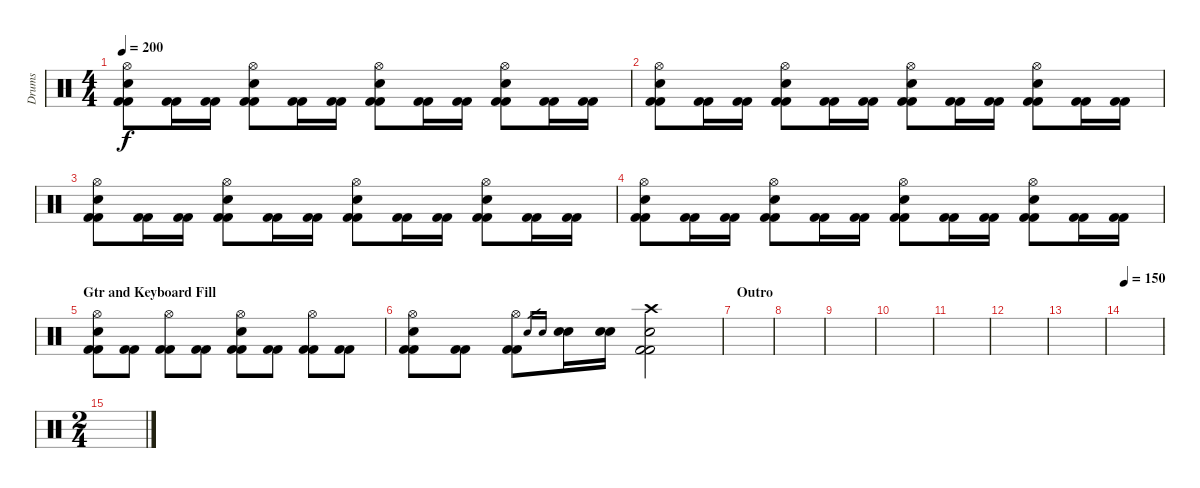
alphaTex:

\track ("Drums" "Drums") {instrument percussion}
\staff {score}
\articulation defaults
\ts (4 4)
\tempo 200
\clef neutral
\ks c
("Hi-Hat (open)" "Snare (hit) 2" "Kick (hit) 2" "Kick (hit) 2").8{dy f} ("Kick (hit) 2" "Kick (hit) 2").16 ("Kick (hit) 2" "Kick (hit) 2").16 ("Hi-Hat (open)" "Snare (hit) 2" "Kick (hit) 2" "Kick (hit) 2").8 ("Kick (hit) 2" "Kick (hit) 2").16 ("Kick (hit) 2" "Kick (hit) 2").16 ("Hi-Hat (open)" "Snare (hit) 2" "Kick (hit) 2" "Kick (hit) 2").8 ("Kick (hit) 2" "Kick (hit) 2").16 ("Kick (hit) 2" "Kick (hit) 2").16 ("Hi-Hat (open)" "Snare (hit) 2" "Kick (hit) 2" "Kick (hit) 2").8 ("Kick (hit) 2" "Kick (hit) 2").16 ("Kick (hit) 2" "Kick (hit) 2").16 |
("Hi-Hat (open)" "Snare (hit) 2" "Kick (hit) 2" "Kick (hit) 2").8 ("Kick (hit) 2" "Kick (hit) 2").16 ("Kick (hit) 2" "Kick (hit) 2").16 ("Hi-Hat (open)" "Snare (hit) 2" "Kick (hit) 2" "Kick (hit) 2").8 ("Kick (hit) 2" "Kick (hit) 2").16 ("Kick (hit) 2" "Kick (hit) 2").16 ("Hi-Hat (open)" "Snare (hit) 2" "Kick (hit) 2" "Kick (hit) 2").8 ("Kick (hit) 2" "Kick (hit) 2").16 ("Kick (hit) 2" "Kick (hit) 2").16 ("Hi-Hat (open)" "Snare (hit) 2" "Kick (hit) 2" "Kick (hit) 2").8 ("Kick (hit) 2" "Kick (hit) 2").16 ("Kick (hit) 2" "Kick (hit) 2").16 |
("Hi-Hat (open)" "Snare (hit) 2" "Kick (hit) 2" "Kick (hit) 2").8 ("Kick (hit) 2" "Kick (hit) 2").16 ("Kick (hit) 2" "Kick (hit) 2").16 ("Hi-Hat (open)" "Snare (hit) 2" "Kick (hit) 2" "Kick (hit) 2").8 ("Kick (hit) 2" "Kick (hit) 2").16 ("Kick (hit) 2" "Kick (hit) 2").16 ("Hi-Hat (open)" "Snare (hit) 2" "Kick (hit) 2" "Kick (hit) 2").8 ("Kick (hit) 2" "Kick (hit) 2").16 ("Kick (hit) 2" "Kick (hit) 2").16 ("Hi-Hat (open)" "Snare (hit) 2" "Kick (hit) 2" "Kick (hit) 2").8 ("Kick (hit) 2" "Kick (hit) 2").16 ("Kick (hit) 2" "Kick (hit) 2").16 |
("Hi-Hat (open)" "Snare (hit) 2" "Kick (hit) 2" "Kick (hit) 2").8 ("Kick (hit) 2" "Kick (hit) 2").16 ("Kick (hit) 2" "Kick (hit) 2").16 ("Hi-Hat (open)" "Snare (hit) 2" "Kick (hit) 2" "Kick (hit) 2").8 ("Kick (hit) 2" "Kick (hit) 2").16 ("Kick (hit) 2" "Kick (hit) 2").16 ("Hi-Hat (open)" "Snare (hit) 2" "Kick (hit) 2" "Kick (hit) 2").8 ("Kick (hit) 2" "Kick (hit) 2").16 ("Kick (hit) 2" "Kick (hit) 2").16 ("Hi-Hat (open)" "Snare (hit) 2" "Kick (hit) 2" "Kick (hit) 2").8 ("Kick (hit) 2" "Kick (hit) 2").16 ("Kick (hit) 2" "Kick (hit) 2").16 |
\section ("" "Gtr and Keyboard Fill")
("Hi-Hat (open)" "Snare (hit) 2" "Kick (hit) 2" "Kick (hit) 2").8 ("Kick (hit) 2" "Kick (hit) 2").8 ("Hi-Hat (open)" "Kick (hit) 2" "Kick (hit) 2").8 ("Kick (hit) 2" "Kick (hit) 2").8 ("Hi-Hat (open)" "Snare (hit) 2" "Kick (hit) 2" "Kick (hit) 2").8 ("Kick (hit) 2" "Kick (hit) 2").8 ("Hi-Hat (open)" "Kick (hit) 2" "Kick (hit) 2").8 ("Kick (hit) 2" "Kick (hit) 2").8 |
("Hi-Hat (open)" "Snare (hit) 2" "Kick (hit) 2" "Kick (hit) 2").8 ("Kick (hit) 2" "Kick (hit) 2").8 ("Hi-Hat (open)" "Kick (hit) 2" "Kick (hit) 2").8 "Snare (hit) 2".16{gr} "Snare (hit) 2".16{gr} ("Snare (hit) 2" "Snare (hit) 2").16 ("Snare (hit) 2" "Snare (hit) 2").16 ("Crash high (hit)" "Snare (hit) 2" "Kick (hit) 2" "Kick (hit) 2").2 |
\section ("" "Outro")
|
|
|
|
|
|
|
\tempo 150
|
\ts (2 4)
